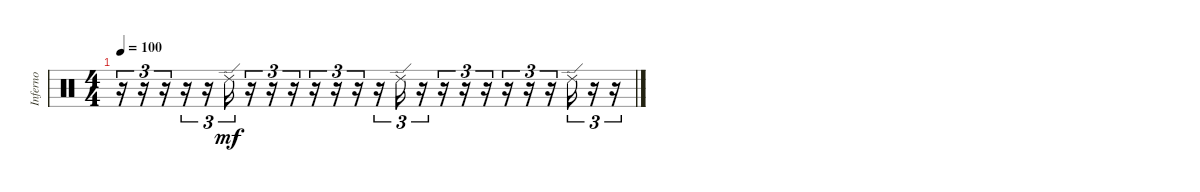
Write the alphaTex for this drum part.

\track ("Inferno" "Inferno") {instrument percussion}
\staff {score}
\articulation defaults
\ts (4 4)
\tempo 100
\clef neutral
\ks c
r.16{tu (3 2) dy mf} r.16{tu (3 2)} r.16{tu (3 2)} r.16{tu (3 2)} r.16{tu (3 2)} "Ride (edge) 2".16{tu (3 2)} r.16{tu (3 2)} r.16{tu (3 2)} r.16{tu (3 2)} r.16{tu (3 2)} r.16{tu (3 2)} r.16{tu (3 2)} r.16{tu (3 2)} "Ride (edge) 2".16{tu (3 2)} r.16{tu (3 2)} r.16{tu (3 2)} r.16{tu (3 2)} r.16{tu (3 2)} r.16{tu (3 2)} r.16{tu (3 2)} r.16{tu (3 2)} "Ride (edge) 2".16{tu (3 2)} r.16{tu (3 2)} r.16{tu (3 2)}
